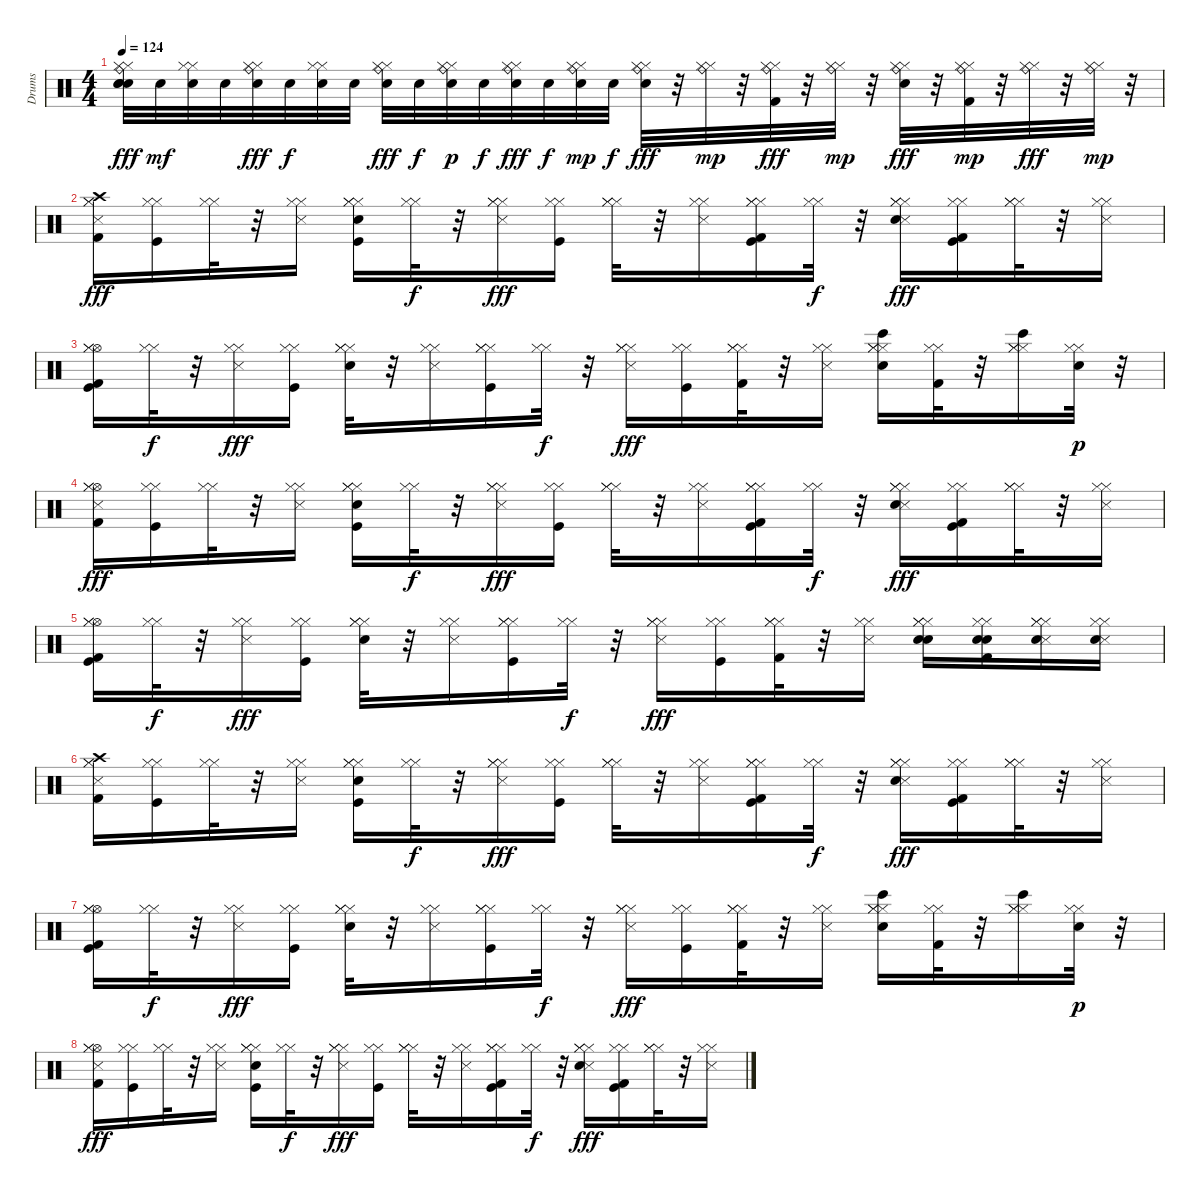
\track ("Drums" "Drums") {instrument percussion}
\staff {score}
\articulation defaults
\ts (4 4)
\tempo 124
\clef neutral
\ks c
("Snare (hit)" "Snare (hit)" "Electric Snare (hit)" "Ride (bell)" "Hi-Hat (closed)" "Hi-Hat (closed)").32{dy fff} "Electric Snare (hit)".32{dy mf} ("Electric Snare (hit)" "Hi-Hat (closed)" "Hi-Hat (closed)").32 "Electric Snare (hit)".32 ("Electric Snare (hit)" "Ride (bell)" "Hi-Hat (closed)" "Hi-Hat (closed)").32{dy fff} "Electric Snare (hit)".32{dy f} ("Electric Snare (hit)" "Hi-Hat (closed)" "Hi-Hat (closed)").32 "Electric Snare (hit)".32 ("Electric Snare (hit)" "Ride (bell)" "Hi-Hat (closed)" "Hi-Hat (closed)").32{dy fff} "Electric Snare (hit)".32{dy f} ("Electric Snare (hit)" "Ride (bell)" "Hi-Hat (closed)" "Hi-Hat (closed)").32{dy p} "Electric Snare (hit)".32{dy f} ("Electric Snare (hit)" "Ride (bell)" "Hi-Hat (closed)" "Hi-Hat (closed)").32{dy fff} "Electric Snare (hit)".32{dy f} ("Electric Snare (hit)" "Ride (bell)" "Hi-Hat (closed)" "Hi-Hat (closed)").32{dy mp} "Electric Snare (hit)".32{dy f} ("Electric Snare (hit)" "Ride (bell)" "Hi-Hat (closed)" "Hi-Hat (closed)").32{dy fff} r.32 ("Ride (bell)" "Hi-Hat (closed)" "Hi-Hat (closed)").32{dy mp} r.32 ("Ride (bell)" "Kick (hit) 2" "Hi-Hat (closed)" "Hi-Hat (closed)").32{dy fff} r.32 ("Ride (bell)" "Hi-Hat (closed)" "Hi-Hat (closed)").32{dy mp} r.32 ("Electric Snare (hit)" "Ride (bell)" "Hi-Hat (closed)" "Hi-Hat (closed)").32{dy fff} r.32 ("Kick (hit) 2" "Ride (bell)" "Hi-Hat (closed)" "Hi-Hat (closed)").32{dy mp} r.32 ("Ride (bell)" "Hi-Hat (closed)" "Hi-Hat (closed)").32{dy fff} r.32 ("Ride (bell)" "Hi-Hat (closed)" "Hi-Hat (closed)").32{dy mp} r.32 |
("Metronome (hit)" "Crash high (hit)" "Kick (hit) 2" "Hi-Hat (closed)" "Hi-Hat (closed)").16{dy fff} ("Kick (hit)" "Hi-Hat (closed)" "Hi-Hat (closed)").16 ("Hi-Hat (closed)" "Hi-Hat (closed)").32 r.32 ("Metronome (hit)" "Hi-Hat (closed)" "Hi-Hat (closed)").16 ("Kick (hit)" "Hi-Hat (closed)" "Electric Snare (hit)" "Hi-Hat (closed)" "Hi-Hat (closed)").16 ("Hi-Hat (closed)" "Hi-Hat (closed)").32{dy f} r.32 ("Metronome (hit)" "Hi-Hat (closed)" "Hi-Hat (closed)" "Hi-Hat (closed)").16{dy fff} ("Kick (hit)" "Hi-Hat (closed)" "Hi-Hat (closed)").16 ("Hi-Hat (closed)" "Hi-Hat (closed)" "Hi-Hat (closed)").32 r.32 ("Metronome (hit)" "Hi-Hat (closed)" "Hi-Hat (closed)").16 ("Kick (hit)" "Hi-Hat (closed)" "Kick (hit) 2" "Hi-Hat (closed)" "Hi-Hat (closed)").16 ("Hi-Hat (closed)" "Hi-Hat (closed)").32{dy f} r.32 ("Metronome (hit)" "Hi-Hat (closed)" "Electric Snare (hit)" "Hi-Hat (closed)" "Hi-Hat (closed)").16{dy fff} ("Kick (hit)" "Kick (hit) 2" "Hi-Hat (closed)" "Hi-Hat (closed)").16 ("Hi-Hat (closed)" "Hi-Hat (closed)" "Hi-Hat (closed)").32 r.32 ("Metronome (hit)" "Hi-Hat (closed)" "Hi-Hat (closed)").16 |
("Kick (hit)" "Hi-Hat (open)" "Kick (hit) 2" "Hi-Hat (closed)" "Hi-Hat (closed)").16 ("Hi-Hat (closed)" "Hi-Hat (closed)").32{dy f} r.32 ("Metronome (hit)" "Hi-Hat (closed)" "Hi-Hat (closed)").16{dy fff} ("Kick (hit)" "Hi-Hat (closed)" "Hi-Hat (closed)").16 ("Electric Snare (hit)" "Hi-Hat (closed)" "Hi-Hat (closed)" "Hi-Hat (closed)").32 r.32 ("Metronome (hit)" "Hi-Hat (closed)" "Hi-Hat (closed)").16 ("Kick (hit)" "Hi-Hat (closed)" "Hi-Hat (closed)" "Hi-Hat (closed)").16 ("Hi-Hat (closed)" "Hi-Hat (closed)").32{dy f} r.32 ("Metronome (hit)" "Hi-Hat (closed)" "Hi-Hat (closed)" "Hi-Hat (closed)").16{dy fff} ("Kick (hit)" "Hi-Hat (closed)" "Hi-Hat (closed)").16 ("Hi-Hat (closed)" "Kick (hit) 2" "Hi-Hat (closed)" "Hi-Hat (closed)").32 r.32 ("Metronome (hit)" "Hi-Hat (closed)" "Hi-Hat (closed)").16 ("Bongo High (hit)" "Electric Snare (hit)" "Hi-Hat (closed)" "Hi-Hat (closed)" "Hi-Hat (closed)").16 ("Kick (hit) 2" "Hi-Hat (closed)" "Hi-Hat (closed)").32 r.32 ("Bongo High (hit)" "Hi-Hat (closed)" "Hi-Hat (closed)" "Hi-Hat (closed)").16 ("Hi-Hat (closed)" "Hi-Hat (closed)" "Electric Snare (hit)").32{dy p} r.32 |
("Metronome (hit)" "Kick (hit) 2" "Hi-Hat (open)" "Hi-Hat (closed)" "Hi-Hat (closed)").16{dy fff} ("Kick (hit)" "Hi-Hat (closed)" "Hi-Hat (closed)").16 ("Hi-Hat (closed)" "Hi-Hat (closed)").32 r.32 ("Metronome (hit)" "Hi-Hat (closed)" "Hi-Hat (closed)").16 ("Kick (hit)" "Electric Snare (hit)" "Hi-Hat (closed)" "Hi-Hat (closed)" "Hi-Hat (closed)").16 ("Hi-Hat (closed)" "Hi-Hat (closed)").32{dy f} r.32 ("Metronome (hit)" "Hi-Hat (closed)" "Hi-Hat (closed)" "Hi-Hat (closed)").16{dy fff} ("Kick (hit)" "Hi-Hat (closed)" "Hi-Hat (closed)").16 ("Hi-Hat (closed)" "Hi-Hat (closed)" "Hi-Hat (closed)").32 r.32 ("Metronome (hit)" "Hi-Hat (closed)" "Hi-Hat (closed)").16 ("Kick (hit)" "Kick (hit) 2" "Hi-Hat (closed)" "Hi-Hat (closed)" "Hi-Hat (closed)").16 ("Hi-Hat (closed)" "Hi-Hat (closed)").32{dy f} r.32 ("Metronome (hit)" "Electric Snare (hit)" "Hi-Hat (closed)" "Hi-Hat (closed)" "Hi-Hat (closed)").16{dy fff} ("Kick (hit)" "Kick (hit) 2" "Hi-Hat (closed)" "Hi-Hat (closed)").16 ("Hi-Hat (closed)" "Hi-Hat (closed)" "Hi-Hat (closed)").32 r.32 ("Metronome (hit)" "Hi-Hat (closed)" "Hi-Hat (closed)").16 |
("Kick (hit)" "Kick (hit) 2" "Hi-Hat (open)" "Hi-Hat (closed)" "Hi-Hat (closed)").16 ("Hi-Hat (closed)" "Hi-Hat (closed)").32{dy f} r.32 ("Metronome (hit)" "Hi-Hat (closed)" "Hi-Hat (closed)").16{dy fff} ("Kick (hit)" "Hi-Hat (closed)" "Hi-Hat (closed)").16 ("Hi-Hat (closed)" "Electric Snare (hit)" "Hi-Hat (closed)" "Hi-Hat (closed)").32 r.32 ("Metronome (hit)" "Hi-Hat (closed)" "Hi-Hat (closed)").16 ("Kick (hit)" "Hi-Hat (closed)" "Hi-Hat (closed)" "Hi-Hat (closed)").16 ("Hi-Hat (closed)" "Hi-Hat (closed)").32{dy f} r.32 ("Metronome (hit)" "Hi-Hat (closed)" "Hi-Hat (closed)" "Hi-Hat (closed)").16{dy fff} ("Kick (hit)" "Hi-Hat (closed)" "Hi-Hat (closed)").16 ("Kick (hit) 2" "Hi-Hat (closed)" "Hi-Hat (closed)" "Hi-Hat (closed)").32 r.32 ("Metronome (hit)" "Hi-Hat (closed)" "Hi-Hat (closed)").16 ("Hand Clap (hit)" "Hi-Hat (closed)" "Electric Snare (hit)" "Hi-Hat (closed)" "Hi-Hat (closed)").16 ("Hand Clap (hit)" "Electric Snare (hit)" "Kick (hit) 2" "Hi-Hat (closed)" "Hi-Hat (closed)").16 ("Snare (side stick) 3" "Electric Snare (hit)" "Hi-Hat (closed)" "Hi-Hat (closed)" "Hi-Hat (closed)").16 ("Snare (side stick) 3" "Electric Snare (hit)" "Hi-Hat (closed)" "Hi-Hat (closed)").16 |
("Metronome (hit)" "Crash high (hit)" "Kick (hit) 2" "Hi-Hat (closed)" "Hi-Hat (closed)").16 ("Kick (hit)" "Hi-Hat (closed)" "Hi-Hat (closed)").16 ("Hi-Hat (closed)" "Hi-Hat (closed)").32 r.32 ("Metronome (hit)" "Hi-Hat (closed)" "Hi-Hat (closed)").16 ("Kick (hit)" "Hi-Hat (closed)" "Electric Snare (hit)" "Hi-Hat (closed)" "Hi-Hat (closed)").16 ("Hi-Hat (closed)" "Hi-Hat (closed)").32{dy f} r.32 ("Metronome (hit)" "Hi-Hat (closed)" "Hi-Hat (closed)" "Hi-Hat (closed)").16{dy fff} ("Kick (hit)" "Hi-Hat (closed)" "Hi-Hat (closed)").16 ("Hi-Hat (closed)" "Hi-Hat (closed)" "Hi-Hat (closed)").32 r.32 ("Metronome (hit)" "Hi-Hat (closed)" "Hi-Hat (closed)").16 ("Kick (hit)" "Hi-Hat (closed)" "Kick (hit) 2" "Hi-Hat (closed)" "Hi-Hat (closed)").16 ("Hi-Hat (closed)" "Hi-Hat (closed)").32{dy f} r.32 ("Metronome (hit)" "Hi-Hat (closed)" "Electric Snare (hit)" "Hi-Hat (closed)" "Hi-Hat (closed)").16{dy fff} ("Kick (hit)" "Kick (hit) 2" "Hi-Hat (closed)" "Hi-Hat (closed)").16 ("Hi-Hat (closed)" "Hi-Hat (closed)" "Hi-Hat (closed)").32 r.32 ("Metronome (hit)" "Hi-Hat (closed)" "Hi-Hat (closed)").16 |
("Kick (hit)" "Hi-Hat (open)" "Kick (hit) 2" "Hi-Hat (closed)" "Hi-Hat (closed)").16 ("Hi-Hat (closed)" "Hi-Hat (closed)").32{dy f} r.32 ("Metronome (hit)" "Hi-Hat (closed)" "Hi-Hat (closed)").16{dy fff} ("Kick (hit)" "Hi-Hat (closed)" "Hi-Hat (closed)").16 ("Electric Snare (hit)" "Hi-Hat (closed)" "Hi-Hat (closed)" "Hi-Hat (closed)").32 r.32 ("Metronome (hit)" "Hi-Hat (closed)" "Hi-Hat (closed)").16 ("Kick (hit)" "Hi-Hat (closed)" "Hi-Hat (closed)" "Hi-Hat (closed)").16 ("Hi-Hat (closed)" "Hi-Hat (closed)").32{dy f} r.32 ("Metronome (hit)" "Hi-Hat (closed)" "Hi-Hat (closed)" "Hi-Hat (closed)").16{dy fff} ("Kick (hit)" "Hi-Hat (closed)" "Hi-Hat (closed)").16 ("Hi-Hat (closed)" "Kick (hit) 2" "Hi-Hat (closed)" "Hi-Hat (closed)").32 r.32 ("Metronome (hit)" "Hi-Hat (closed)" "Hi-Hat (closed)").16 ("Bongo High (hit)" "Electric Snare (hit)" "Hi-Hat (closed)" "Hi-Hat (closed)" "Hi-Hat (closed)").16 ("Kick (hit) 2" "Hi-Hat (closed)" "Hi-Hat (closed)").32 r.32 ("Bongo High (hit)" "Hi-Hat (closed)" "Hi-Hat (closed)" "Hi-Hat (closed)").16 ("Hi-Hat (closed)" "Hi-Hat (closed)" "Electric Snare (hit)").32{dy p} r.32 |
("Metronome (hit)" "Kick (hit) 2" "Hi-Hat (open)" "Hi-Hat (closed)" "Hi-Hat (closed)").16{dy fff} ("Kick (hit)" "Hi-Hat (closed)" "Hi-Hat (closed)").16 ("Hi-Hat (closed)" "Hi-Hat (closed)").32 r.32 ("Metronome (hit)" "Hi-Hat (closed)" "Hi-Hat (closed)").16 ("Kick (hit)" "Electric Snare (hit)" "Hi-Hat (closed)" "Hi-Hat (closed)" "Hi-Hat (closed)").16 ("Hi-Hat (closed)" "Hi-Hat (closed)").32{dy f} r.32 ("Metronome (hit)" "Hi-Hat (closed)" "Hi-Hat (closed)" "Hi-Hat (closed)").16{dy fff} ("Kick (hit)" "Hi-Hat (closed)" "Hi-Hat (closed)").16 ("Hi-Hat (closed)" "Hi-Hat (closed)" "Hi-Hat (closed)").32 r.32 ("Metronome (hit)" "Hi-Hat (closed)" "Hi-Hat (closed)").16 ("Kick (hit)" "Kick (hit) 2" "Hi-Hat (closed)" "Hi-Hat (closed)" "Hi-Hat (closed)").16 ("Hi-Hat (closed)" "Hi-Hat (closed)").32{dy f} r.32 ("Metronome (hit)" "Electric Snare (hit)" "Hi-Hat (closed)" "Hi-Hat (closed)" "Hi-Hat (closed)").16{dy fff} ("Kick (hit)" "Kick (hit) 2" "Hi-Hat (closed)" "Hi-Hat (closed)").16 ("Hi-Hat (closed)" "Hi-Hat (closed)" "Hi-Hat (closed)").32 r.32 ("Metronome (hit)" "Hi-Hat (closed)" "Hi-Hat (closed)").16
